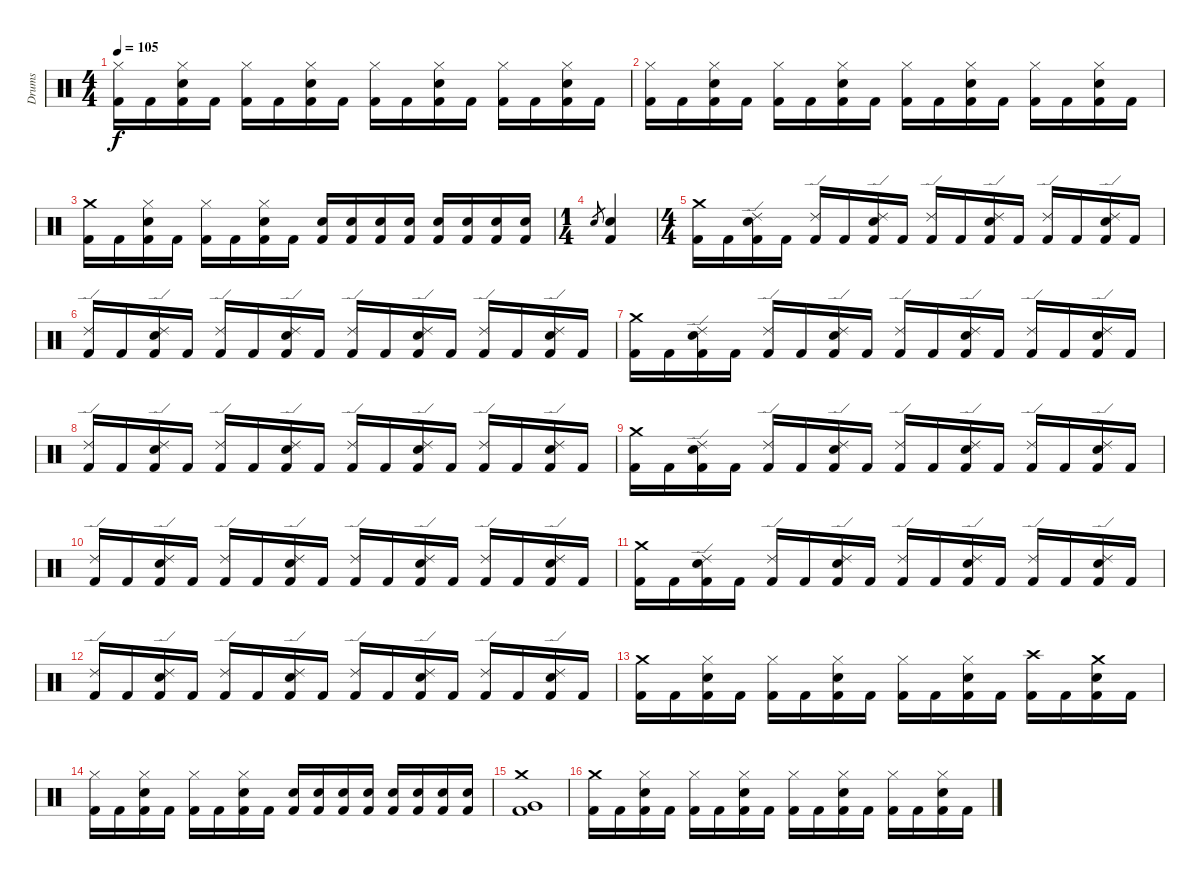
\track ("Drums" "Drums") {instrument percussion}
\staff {score}
\articulation defaults
\ts (4 4)
\tempo 105
\clef neutral
\ks c
("Hi-Hat (closed)" "Kick (hit) 2").16{dy f} "Kick (hit) 2".16 ("Hi-Hat (closed)" "Electric Snare (hit)" "Kick (hit) 2").16 "Kick (hit) 2".16 ("Hi-Hat (closed)" "Kick (hit) 2").16 "Kick (hit) 2".16 ("Hi-Hat (closed)" "Electric Snare (hit)" "Kick (hit) 2").16 "Kick (hit) 2".16 ("Hi-Hat (closed)" "Kick (hit) 2").16 "Kick (hit) 2".16 ("Hi-Hat (closed)" "Electric Snare (hit)" "Kick (hit) 2").16 "Kick (hit) 2".16 ("Hi-Hat (closed)" "Kick (hit) 2").16 "Kick (hit) 2".16 ("Hi-Hat (closed)" "Electric Snare (hit)" "Kick (hit) 2").16 "Kick (hit) 2".16 |
("Hi-Hat (closed)" "Kick (hit) 2").16 "Kick (hit) 2".16 ("Hi-Hat (closed)" "Electric Snare (hit)" "Kick (hit) 2").16 "Kick (hit) 2".16 ("Hi-Hat (closed)" "Kick (hit) 2").16 "Kick (hit) 2".16 ("Hi-Hat (closed)" "Electric Snare (hit)" "Kick (hit) 2").16 "Kick (hit) 2".16 ("Hi-Hat (closed)" "Kick (hit) 2").16 "Kick (hit) 2".16 ("Hi-Hat (closed)" "Electric Snare (hit)" "Kick (hit) 2").16 "Kick (hit) 2".16 ("Hi-Hat (closed)" "Kick (hit) 2").16 "Kick (hit) 2".16 ("Hi-Hat (closed)" "Electric Snare (hit)" "Kick (hit) 2").16 "Kick (hit) 2".16 |
("Crash medium (hit)" "Kick (hit) 2").16 "Kick (hit) 2".16 ("Hi-Hat (closed)" "Electric Snare (hit)" "Kick (hit) 2").16 "Kick (hit) 2".16 ("Hi-Hat (closed)" "Kick (hit) 2").16 "Kick (hit) 2".16 ("Hi-Hat (closed)" "Electric Snare (hit)" "Kick (hit) 2").16 "Kick (hit) 2".16 ("Electric Snare (hit)" "Kick (hit) 2").16 ("Electric Snare (hit)" "Kick (hit) 2").16 ("Electric Snare (hit)" "Kick (hit) 2").16 ("Electric Snare (hit)" "Kick (hit) 2").16 ("Electric Snare (hit)" "Kick (hit) 2").16 ("Electric Snare (hit)" "Kick (hit) 2").16 ("Electric Snare (hit)" "Kick (hit) 2").16 ("Electric Snare (hit)" "Kick (hit) 2").16 |
\ts (1 4)
"Electric Snare (hit)".8{gr} ("Electric Snare (hit)" "Kick (hit) 2").4 |
\ts (4 4)
("Crash medium (hit)" "Kick (hit) 2").16 "Kick (hit) 2".16 ("Ride (edge) 2" "Electric Snare (hit)" "Kick (hit) 2").16 "Kick (hit) 2".16 ("Ride (edge) 2" "Kick (hit) 2").16 "Kick (hit) 2".16 ("Ride (edge) 2" "Electric Snare (hit)" "Kick (hit) 2").16 "Kick (hit) 2".16 ("Ride (edge) 2" "Kick (hit) 2").16 "Kick (hit) 2".16 ("Ride (edge) 2" "Electric Snare (hit)" "Kick (hit) 2").16 "Kick (hit) 2".16 ("Ride (edge) 2" "Kick (hit) 2").16 "Kick (hit) 2".16 ("Ride (edge) 2" "Electric Snare (hit)" "Kick (hit) 2").16 "Kick (hit) 2".16 |
("Ride (edge) 2" "Kick (hit) 2").16 "Kick (hit) 2".16 ("Ride (edge) 2" "Electric Snare (hit)" "Kick (hit) 2").16 "Kick (hit) 2".16 ("Ride (edge) 2" "Kick (hit) 2").16 "Kick (hit) 2".16 ("Ride (edge) 2" "Electric Snare (hit)" "Kick (hit) 2").16 "Kick (hit) 2".16 ("Ride (edge) 2" "Kick (hit) 2").16 "Kick (hit) 2".16 ("Ride (edge) 2" "Electric Snare (hit)" "Kick (hit) 2").16 "Kick (hit) 2".16 ("Ride (edge) 2" "Kick (hit) 2").16 "Kick (hit) 2".16 ("Ride (edge) 2" "Electric Snare (hit)" "Kick (hit) 2").16 "Kick (hit) 2".16 |
("Crash medium (hit)" "Kick (hit) 2").16 "Kick (hit) 2".16 ("Ride (edge) 2" "Electric Snare (hit)" "Kick (hit) 2").16 "Kick (hit) 2".16 ("Ride (edge) 2" "Kick (hit) 2").16 "Kick (hit) 2".16 ("Ride (edge) 2" "Electric Snare (hit)" "Kick (hit) 2").16 "Kick (hit) 2".16 ("Ride (edge) 2" "Kick (hit) 2").16 "Kick (hit) 2".16 ("Ride (edge) 2" "Electric Snare (hit)" "Kick (hit) 2").16 "Kick (hit) 2".16 ("Ride (edge) 2" "Kick (hit) 2").16 "Kick (hit) 2".16 ("Ride (edge) 2" "Electric Snare (hit)" "Kick (hit) 2").16 "Kick (hit) 2".16 |
("Ride (edge) 2" "Kick (hit) 2").16 "Kick (hit) 2".16 ("Ride (edge) 2" "Electric Snare (hit)" "Kick (hit) 2").16 "Kick (hit) 2".16 ("Ride (edge) 2" "Kick (hit) 2").16 "Kick (hit) 2".16 ("Ride (edge) 2" "Electric Snare (hit)" "Kick (hit) 2").16 "Kick (hit) 2".16 ("Ride (edge) 2" "Kick (hit) 2").16 "Kick (hit) 2".16 ("Ride (edge) 2" "Electric Snare (hit)" "Kick (hit) 2").16 "Kick (hit) 2".16 ("Ride (edge) 2" "Kick (hit) 2").16 "Kick (hit) 2".16 ("Ride (edge) 2" "Electric Snare (hit)" "Kick (hit) 2").16 "Kick (hit) 2".16 |
("Crash medium (hit)" "Kick (hit) 2").16 "Kick (hit) 2".16 ("Ride (edge) 2" "Electric Snare (hit)" "Kick (hit) 2").16 "Kick (hit) 2".16 ("Ride (edge) 2" "Kick (hit) 2").16 "Kick (hit) 2".16 ("Ride (edge) 2" "Electric Snare (hit)" "Kick (hit) 2").16 "Kick (hit) 2".16 ("Ride (edge) 2" "Kick (hit) 2").16 "Kick (hit) 2".16 ("Ride (edge) 2" "Electric Snare (hit)" "Kick (hit) 2").16 "Kick (hit) 2".16 ("Ride (edge) 2" "Kick (hit) 2").16 "Kick (hit) 2".16 ("Ride (edge) 2" "Electric Snare (hit)" "Kick (hit) 2").16 "Kick (hit) 2".16 |
("Ride (edge) 2" "Kick (hit) 2").16 "Kick (hit) 2".16 ("Ride (edge) 2" "Electric Snare (hit)" "Kick (hit) 2").16 "Kick (hit) 2".16 ("Ride (edge) 2" "Kick (hit) 2").16 "Kick (hit) 2".16 ("Ride (edge) 2" "Electric Snare (hit)" "Kick (hit) 2").16 "Kick (hit) 2".16 ("Ride (edge) 2" "Kick (hit) 2").16 "Kick (hit) 2".16 ("Ride (edge) 2" "Electric Snare (hit)" "Kick (hit) 2").16 "Kick (hit) 2".16 ("Ride (edge) 2" "Kick (hit) 2").16 "Kick (hit) 2".16 ("Ride (edge) 2" "Electric Snare (hit)" "Kick (hit) 2").16 "Kick (hit) 2".16 |
("Crash medium (hit)" "Kick (hit) 2").16 "Kick (hit) 2".16 ("Ride (edge) 2" "Electric Snare (hit)" "Kick (hit) 2").16 "Kick (hit) 2".16 ("Ride (edge) 2" "Kick (hit) 2").16 "Kick (hit) 2".16 ("Ride (edge) 2" "Electric Snare (hit)" "Kick (hit) 2").16 "Kick (hit) 2".16 ("Ride (edge) 2" "Kick (hit) 2").16 "Kick (hit) 2".16 ("Ride (edge) 2" "Electric Snare (hit)" "Kick (hit) 2").16 "Kick (hit) 2".16 ("Ride (edge) 2" "Kick (hit) 2").16 "Kick (hit) 2".16 ("Ride (edge) 2" "Electric Snare (hit)" "Kick (hit) 2").16 "Kick (hit) 2".16 |
("Ride (edge) 2" "Kick (hit) 2").16 "Kick (hit) 2".16 ("Ride (edge) 2" "Electric Snare (hit)" "Kick (hit) 2").16 "Kick (hit) 2".16 ("Ride (edge) 2" "Kick (hit) 2").16 "Kick (hit) 2".16 ("Ride (edge) 2" "Electric Snare (hit)" "Kick (hit) 2").16 "Kick (hit) 2".16 ("Ride (edge) 2" "Kick (hit) 2").16 "Kick (hit) 2".16 ("Ride (edge) 2" "Electric Snare (hit)" "Kick (hit) 2").16 "Kick (hit) 2".16 ("Ride (edge) 2" "Kick (hit) 2").16 "Kick (hit) 2".16 ("Ride (edge) 2" "Electric Snare (hit)" "Kick (hit) 2").16 "Kick (hit) 2".16 |
("Crash medium (hit)" "Kick (hit) 2").16 "Kick (hit) 2".16 ("Hi-Hat (closed)" "Electric Snare (hit)" "Kick (hit) 2").16 "Kick (hit) 2".16 ("Hi-Hat (closed)" "Kick (hit) 2").16 "Kick (hit) 2".16 ("Hi-Hat (closed)" "Electric Snare (hit)" "Kick (hit) 2").16 "Kick (hit) 2".16 ("Hi-Hat (closed)" "Kick (hit) 2").16 "Kick (hit) 2".16 ("Hi-Hat (closed)" "Electric Snare (hit)" "Kick (hit) 2").16 "Kick (hit) 2".16 ("Crash high (hit)" "Kick (hit) 2").16 "Kick (hit) 2".16 ("Crash medium (hit)" "Electric Snare (hit)" "Kick (hit) 2").16 "Kick (hit) 2".16 |
("Hi-Hat (closed)" "Kick (hit) 2").16 "Kick (hit) 2".16 ("Hi-Hat (closed)" "Electric Snare (hit)" "Kick (hit) 2").16 "Kick (hit) 2".16 ("Hi-Hat (closed)" "Kick (hit) 2").16 "Kick (hit) 2".16 ("Hi-Hat (closed)" "Electric Snare (hit)" "Kick (hit) 2").16 "Kick (hit) 2".16 ("Electric Snare (hit)" "Kick (hit) 2").16 ("Electric Snare (hit)" "Kick (hit) 2").16 ("Electric Snare (hit)" "Kick (hit) 2").16 ("Electric Snare (hit)" "Kick (hit) 2").16 ("Electric Snare (hit)" "Kick (hit) 2").16 ("Electric Snare (hit)" "Kick (hit) 2").16 ("Electric Snare (hit)" "Kick (hit) 2").16 ("Electric Snare (hit)" "Kick (hit) 2").16 |
("Very Low Tom (hit)" "Crash medium (hit)" "Kick (hit) 2").1 |
("Crash medium (hit)" "Kick (hit) 2").16 "Kick (hit) 2".16 ("Hi-Hat (closed)" "Electric Snare (hit)" "Kick (hit) 2").16 "Kick (hit) 2".16 ("Hi-Hat (closed)" "Kick (hit) 2").16 "Kick (hit) 2".16 ("Hi-Hat (closed)" "Electric Snare (hit)" "Kick (hit) 2").16 "Kick (hit) 2".16 ("Hi-Hat (closed)" "Kick (hit) 2").16 "Kick (hit) 2".16 ("Hi-Hat (closed)" "Electric Snare (hit)" "Kick (hit) 2").16 "Kick (hit) 2".16 ("Hi-Hat (closed)" "Kick (hit) 2").16 "Kick (hit) 2".16 ("Hi-Hat (closed)" "Electric Snare (hit)" "Kick (hit) 2").16 "Kick (hit) 2".16
